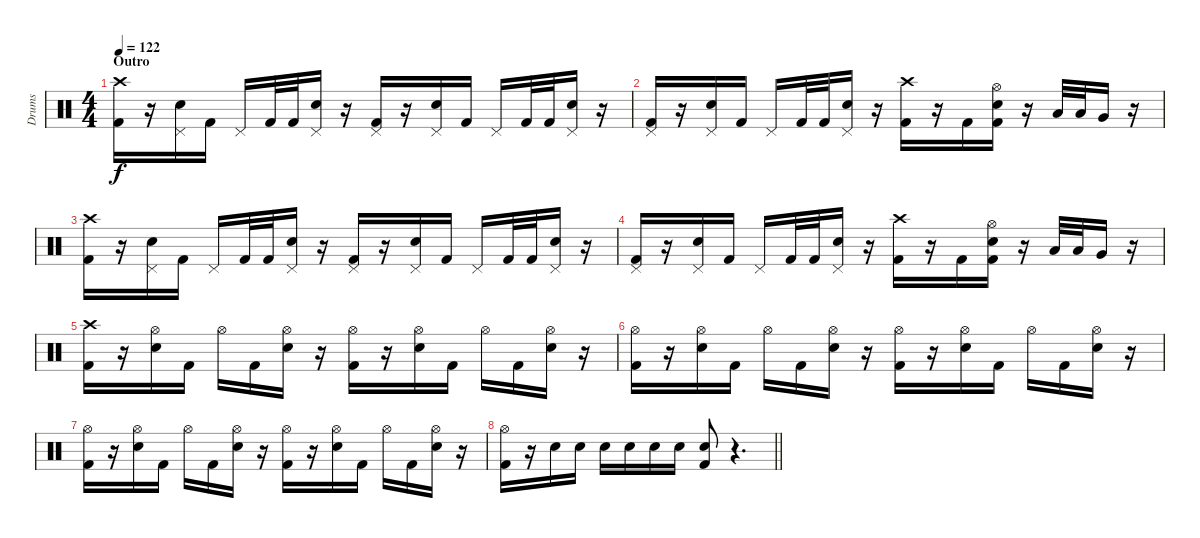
\track ("Drums" "Drums") {instrument percussion}
\staff {score}
\articulation defaults
\ts (4 4)
\section ("" "Outro")
\tempo 122
\clef neutral
\ks c
("Crash high (hit)" "Kick (hit) 2").16{dy f} r.16 ("Pedal Hi-Hat (hit)" "Snare (hit) 2").16 "Kick (hit) 2".16 "Pedal Hi-Hat (hit)".16 "Kick (hit) 2".32 "Kick (hit) 2".32 ("Pedal Hi-Hat (hit)" "Snare (hit) 2").16 r.16 ("Pedal Hi-Hat (hit)" "Kick (hit) 2").16 r.16 ("Pedal Hi-Hat (hit)" "Snare (hit) 2").16 "Kick (hit) 2".16 "Pedal Hi-Hat (hit)".16 "Kick (hit) 2".32 "Kick (hit) 2".32 ("Pedal Hi-Hat (hit)" "Snare (hit) 2").16 r.16 |
("Pedal Hi-Hat (hit)" "Kick (hit) 2").16 r.16 ("Pedal Hi-Hat (hit)" "Snare (hit) 2").16 "Kick (hit) 2".16 "Pedal Hi-Hat (hit)".16 "Kick (hit) 2".32 "Kick (hit) 2".32 ("Pedal Hi-Hat (hit)" "Snare (hit) 2").16 r.16 ("Crash high (hit)" "Kick (hit) 2").16 r.16 "Kick (hit) 2".16 ("Hi-Hat (open)" "Snare (hit) 2" "Kick (hit) 2").16 r.16 "Low Tom (hit)".32 "Low Tom (hit)".32 "Very Low Tom (hit)".16 r.16 |
("Crash high (hit)" "Kick (hit) 2").16 r.16 ("Pedal Hi-Hat (hit)" "Snare (hit) 2").16 "Kick (hit) 2".16 "Pedal Hi-Hat (hit)".16 "Kick (hit) 2".32 "Kick (hit) 2".32 ("Pedal Hi-Hat (hit)" "Snare (hit) 2").16 r.16 ("Pedal Hi-Hat (hit)" "Kick (hit) 2").16 r.16 ("Pedal Hi-Hat (hit)" "Snare (hit) 2").16 "Kick (hit) 2".16 "Pedal Hi-Hat (hit)".16 "Kick (hit) 2".32 "Kick (hit) 2".32 ("Pedal Hi-Hat (hit)" "Snare (hit) 2").16 r.16 |
("Pedal Hi-Hat (hit)" "Kick (hit) 2").16 r.16 ("Pedal Hi-Hat (hit)" "Snare (hit) 2").16 "Kick (hit) 2".16 "Pedal Hi-Hat (hit)".16 "Kick (hit) 2".32 "Kick (hit) 2".32 ("Pedal Hi-Hat (hit)" "Snare (hit) 2").16 r.16 ("Crash high (hit)" "Kick (hit) 2").16 r.16 "Kick (hit) 2".16 ("Hi-Hat (open)" "Snare (hit) 2" "Kick (hit) 2").16 r.16 "Low Tom (hit)".32 "Low Tom (hit)".32 "Very Low Tom (hit)".16 r.16 |
("Crash high (hit)" "Kick (hit) 2").16 r.16 ("Hi-Hat (open)" "Snare (hit) 2").16 "Kick (hit) 2".16 "Hi-Hat (open)".16 "Kick (hit) 2".16 ("Hi-Hat (open)" "Snare (hit) 2").16 r.16 ("Hi-Hat (open)" "Kick (hit) 2").16 r.16 ("Hi-Hat (open)" "Snare (hit) 2").16 "Kick (hit) 2".16 "Hi-Hat (open)".16 "Kick (hit) 2".16 ("Hi-Hat (open)" "Snare (hit) 2").16 r.16 |
("Hi-Hat (open)" "Kick (hit) 2").16 r.16 ("Hi-Hat (open)" "Snare (hit) 2").16 "Kick (hit) 2".16 "Hi-Hat (open)".16 "Kick (hit) 2".16 ("Hi-Hat (open)" "Snare (hit) 2").16 r.16 ("Hi-Hat (open)" "Kick (hit) 2").16 r.16 ("Hi-Hat (open)" "Snare (hit) 2").16 "Kick (hit) 2".16 "Hi-Hat (open)".16 "Kick (hit) 2".16 ("Hi-Hat (open)" "Snare (hit) 2").16 r.16 |
("Hi-Hat (open)" "Kick (hit) 2").16 r.16 ("Hi-Hat (open)" "Snare (hit) 2").16 "Kick (hit) 2".16 "Hi-Hat (open)".16 "Kick (hit) 2".16 ("Hi-Hat (open)" "Snare (hit) 2").16 r.16 ("Hi-Hat (open)" "Kick (hit) 2").16 r.16 ("Hi-Hat (open)" "Snare (hit) 2").16 "Kick (hit) 2".16 "Hi-Hat (open)".16 "Kick (hit) 2".16 ("Hi-Hat (open)" "Snare (hit) 2").16 r.16 |
\barLineRight lightlight
("Hi-Hat (open)" "Kick (hit) 2").16 r.16 "Snare (hit) 2".16 "Snare (hit) 2".16 "Snare (hit) 2".16 "Snare (hit) 2".16 "Snare (hit) 2".16 "Snare (hit) 2".16 ("Snare (hit) 2" "Kick (hit) 2").8 r.4{d}
